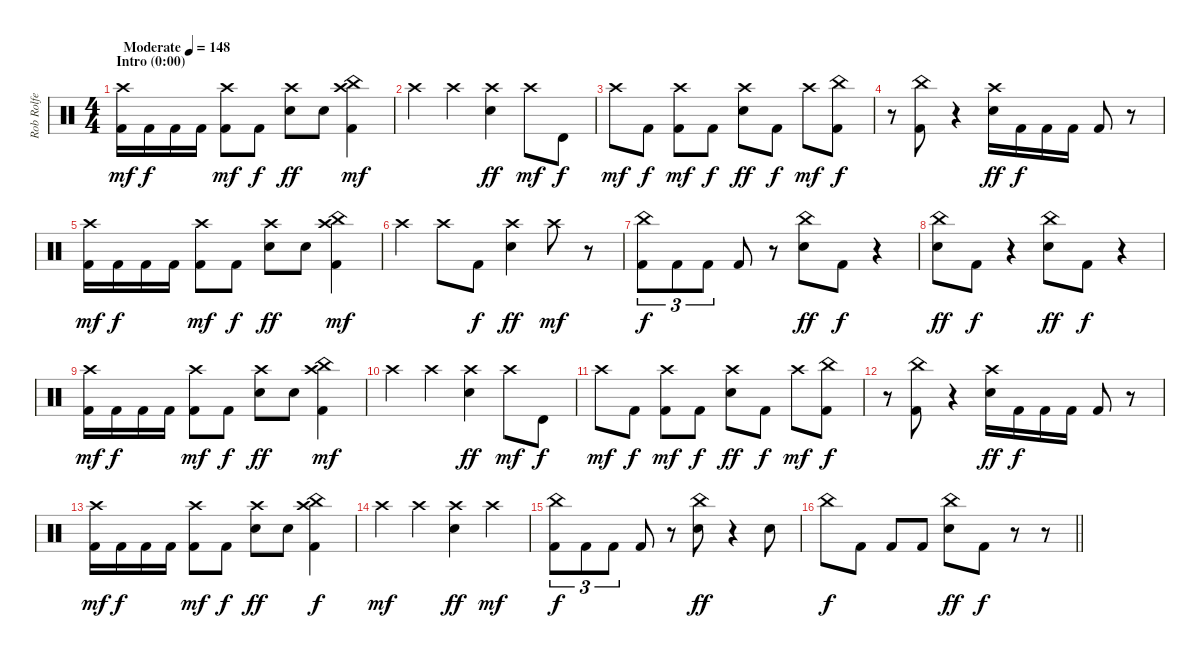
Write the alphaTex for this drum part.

\track ("Rob Rolfe [Drums]" "Rob Rolfe ") {instrument percussion}
\staff {score}
\articulation defaults
\ts (4 4)
\section ("" "Intro (0:00)")
\tempo (148 "Moderate")
\clef neutral
\ks c
("Crash high (hit)" "Kick (hit) 2").16{dy mf} "Kick (hit) 2".16{dy f} "Kick (hit) 2".16 "Kick (hit) 2".16 ("Crash high (hit)" "Kick (hit) 2").8{dy mf} "Kick (hit) 2".8{dy f} ("Crash high (hit)" "Electric Snare (hit)").8{dy ff} "Electric Snare (hit)".8 ("Crash high (hit)" "China (hit)" "Kick (hit) 2").4{dy mf} |
"Crash high (hit)".4 "Crash high (hit)".4 ("Crash high (hit)" "Electric Snare (hit)").4{dy ff} "Crash high (hit)".8{dy mf} "Timbale high (hit)".8{dy f} |
"Crash high (hit)".8{dy mf} "Kick (hit) 2".8{dy f} ("Crash high (hit)" "Kick (hit) 2").8{dy mf} "Kick (hit) 2".8{dy f} ("Crash high (hit)" "Electric Snare (hit)").8{dy ff} "Kick (hit) 2".8{dy f} "Crash high (hit)".8{dy mf} ("China (hit)" "Kick (hit) 2").8{dy f} |
r.8 ("China (hit)" "Kick (hit) 2").8 r.4 ("Crash high (hit)" "Electric Snare (hit)").16{dy ff} "Kick (hit) 2".16{dy f} "Kick (hit) 2".16 "Kick (hit) 2".16 "Kick (hit) 2".8 r.8 |
("Crash high (hit)" "Kick (hit) 2").16{dy mf} "Kick (hit) 2".16{dy f} "Kick (hit) 2".16 "Kick (hit) 2".16 ("Crash high (hit)" "Kick (hit) 2").8{dy mf} "Kick (hit) 2".8{dy f} ("Crash high (hit)" "Electric Snare (hit)").8{dy ff} "Electric Snare (hit)".8 ("Crash high (hit)" "China (hit)" "Kick (hit) 2").4{dy mf} |
"Crash high (hit)".4 "Crash high (hit)".8 "Kick (hit) 2".8{dy f} ("Crash high (hit)" "Electric Snare (hit)").4{dy ff} "Crash high (hit)".8{dy mf} r.8 |
("China (hit)" "Kick (hit) 2").8{tu (3 2) dy f} "Kick (hit) 2".8{tu (3 2)} "Kick (hit) 2".8{tu (3 2)} "Kick (hit) 2".8 r.8 ("China (hit)" "Electric Snare (hit)").8{dy ff} "Kick (hit) 2".8{dy f} r.4 |
("China (hit)" "Electric Snare (hit)").8{dy ff} "Kick (hit) 2".8{dy f} r.4 ("China (hit)" "Electric Snare (hit)").8{dy ff} "Kick (hit) 2".8{dy f} r.4 |
("Crash high (hit)" "Kick (hit) 2").16{dy mf} "Kick (hit) 2".16{dy f} "Kick (hit) 2".16 "Kick (hit) 2".16 ("Crash high (hit)" "Kick (hit) 2").8{dy mf} "Kick (hit) 2".8{dy f} ("Crash high (hit)" "Electric Snare (hit)").8{dy ff} "Electric Snare (hit)".8 ("Crash high (hit)" "China (hit)" "Kick (hit) 2").4{dy mf} |
"Crash high (hit)".4 "Crash high (hit)".4 ("Crash high (hit)" "Electric Snare (hit)").4{dy ff} "Crash high (hit)".8{dy mf} "Timbale high (hit)".8{dy f} |
"Crash high (hit)".8{dy mf} "Kick (hit) 2".8{dy f} ("Crash high (hit)" "Kick (hit) 2").8{dy mf} "Kick (hit) 2".8{dy f} ("Crash high (hit)" "Electric Snare (hit)").8{dy ff} "Kick (hit) 2".8{dy f} "Crash high (hit)".8{dy mf} ("China (hit)" "Kick (hit) 2").8{dy f} |
r.8 ("China (hit)" "Kick (hit) 2").8 r.4 ("Crash high (hit)" "Electric Snare (hit)").16{dy ff} "Kick (hit) 2".16{dy f} "Kick (hit) 2".16 "Kick (hit) 2".16 "Kick (hit) 2".8 r.8 |
("Crash high (hit)" "Kick (hit) 2").16{dy mf} "Kick (hit) 2".16{dy f} "Kick (hit) 2".16 "Kick (hit) 2".16 ("Crash high (hit)" "Kick (hit) 2").8{dy mf} "Kick (hit) 2".8{dy f} ("Crash high (hit)" "Electric Snare (hit)").8{dy ff} "Electric Snare (hit)".8 ("China (hit)" "Crash high (hit)" "Kick (hit) 2").4{dy f} |
"Crash high (hit)".4{dy mf} "Crash high (hit)".4 ("Crash high (hit)" "Electric Snare (hit)").4{dy ff} "Crash high (hit)".4{dy mf} |
("China (hit)" "Kick (hit) 2").8{tu (3 2) dy f} "Kick (hit) 2".8{tu (3 2)} "Kick (hit) 2".8{tu (3 2)} "Kick (hit) 2".8 r.8 ("China (hit)" "Electric Snare (hit)").8{dy ff} r.4 "Electric Snare (hit)".8 |
\barLineRight lightlight "China (hit)".8{dy f} "Kick (hit) 2".8 "Kick (hit) 2".8 "Kick (hit) 2".8
("China (hit)" "Electric Snare (hit)").8{dy ff} "Kick (hit) 2".8{dy f} r.8 r.8
